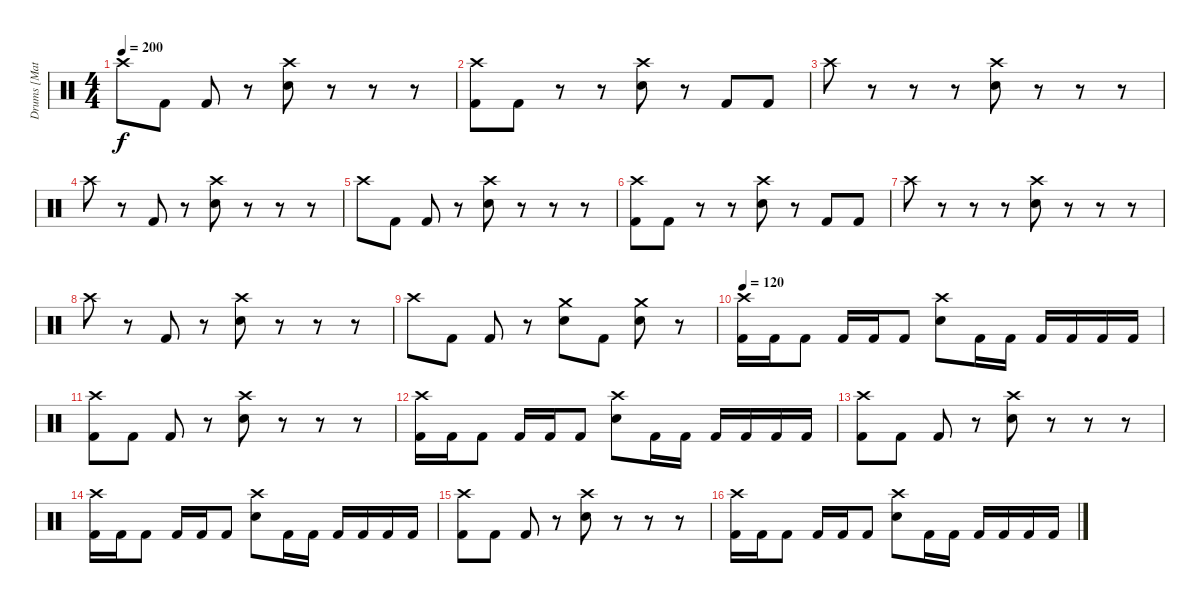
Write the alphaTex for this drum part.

\track ("Drums [Matt]" "Drums [Mat") {instrument percussion}
\staff {score}
\articulation defaults
\ts (4 4)
\tempo 200
\clef neutral
\ks c "Crash high (hit)".8{dy f} "Kick (hit) 2".8 "Kick (hit) 2".8
r.8 ("Crash high (hit)" "Electric Snare (hit)").8 r.8 r.8 r.8 |
("Crash high (hit)" "Kick (hit) 2").8 "Kick (hit) 2".8 r.8 r.8 ("Crash high (hit)" "Electric Snare (hit)").8 r.8 "Kick (hit) 2".8 "Kick (hit) 2".8 |
"Crash high (hit)".8 r.8 r.8 r.8 ("Crash high (hit)" "Electric Snare (hit)").8 r.8 r.8 r.8 |
"Crash high (hit)".8 r.8 "Kick (hit) 2".8 r.8 ("Crash high (hit)" "Electric Snare (hit)").8 r.8 r.8 r.8 |
"Crash high (hit)".8 "Kick (hit) 2".8 "Kick (hit) 2".8 r.8 ("Crash high (hit)" "Electric Snare (hit)").8 r.8 r.8 r.8 |
("Crash high (hit)" "Kick (hit) 2").8 "Kick (hit) 2".8 r.8 r.8 ("Crash high (hit)" "Electric Snare (hit)").8 r.8 "Kick (hit) 2".8 "Kick (hit) 2".8 |
"Crash high (hit)".8 r.8 r.8 r.8 ("Crash high (hit)" "Electric Snare (hit)").8 r.8 r.8 r.8 |
"Crash high (hit)".8 r.8 "Kick (hit) 2".8 r.8 ("Crash high (hit)" "Electric Snare (hit)").8 r.8 r.8 r.8 |
"Crash high (hit)".8 "Kick (hit) 2".8 "Kick (hit) 2".8 r.8 ("Crash medium (hit)" "Electric Snare (hit)").8 "Kick (hit) 2".8 ("Crash medium (hit)" "Electric Snare (hit)").8 r.8 |
\tempo 120
("Crash high (hit)" "Kick (hit) 2").16 "Kick (hit) 2".16 "Kick (hit) 2".8 "Kick (hit) 2".16 "Kick (hit) 2".16 "Kick (hit) 2".8 ("Crash high (hit)" "Electric Snare (hit)").8 "Kick (hit) 2".16 "Kick (hit) 2".16 "Kick (hit) 2".16 "Kick (hit) 2".16 "Kick (hit) 2".16 "Kick (hit) 2".16 |
("Crash high (hit)" "Kick (hit) 2").8 "Kick (hit) 2".8 "Kick (hit) 2".8 r.8 ("Crash high (hit)" "Electric Snare (hit)").8 r.8 r.8 r.8 |
("Crash high (hit)" "Kick (hit) 2").16 "Kick (hit) 2".16 "Kick (hit) 2".8 "Kick (hit) 2".16 "Kick (hit) 2".16 "Kick (hit) 2".8 ("Crash high (hit)" "Electric Snare (hit)").8 "Kick (hit) 2".16 "Kick (hit) 2".16 "Kick (hit) 2".16 "Kick (hit) 2".16 "Kick (hit) 2".16 "Kick (hit) 2".16 |
("Crash high (hit)" "Kick (hit) 2").8 "Kick (hit) 2".8 "Kick (hit) 2".8 r.8 ("Crash high (hit)" "Electric Snare (hit)").8 r.8 r.8 r.8 |
("Crash high (hit)" "Kick (hit) 2").16 "Kick (hit) 2".16 "Kick (hit) 2".8 "Kick (hit) 2".16 "Kick (hit) 2".16 "Kick (hit) 2".8 ("Crash high (hit)" "Electric Snare (hit)").8 "Kick (hit) 2".16 "Kick (hit) 2".16 "Kick (hit) 2".16 "Kick (hit) 2".16 "Kick (hit) 2".16 "Kick (hit) 2".16 |
("Crash high (hit)" "Kick (hit) 2").8 "Kick (hit) 2".8 "Kick (hit) 2".8 r.8 ("Crash high (hit)" "Electric Snare (hit)").8 r.8 r.8 r.8 |
("Crash high (hit)" "Kick (hit) 2").16 "Kick (hit) 2".16 "Kick (hit) 2".8 "Kick (hit) 2".16 "Kick (hit) 2".16 "Kick (hit) 2".8 ("Crash high (hit)" "Electric Snare (hit)").8 "Kick (hit) 2".16 "Kick (hit) 2".16 "Kick (hit) 2".16 "Kick (hit) 2".16 "Kick (hit) 2".16 "Kick (hit) 2".16
